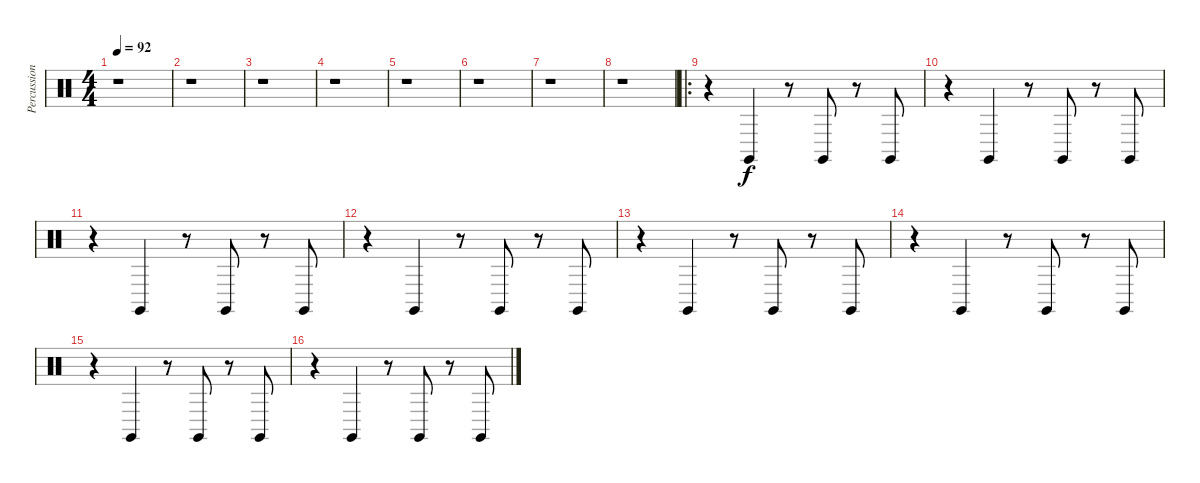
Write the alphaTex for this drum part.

\track ("Percussion" "Percussion") {instrument percussion}
\staff {score}
\articulation defaults
\ts (4 4)
\tempo 92
\clef neutral
\ks c
r.1{dy f} |
r.1 |
r.1 |
r.1 |
r.1 |
r.1 |
r.1 |
r.1 |
\ro
r.4 "Claves (hit)".4 r.8 "Claves (hit)".8 r.8 "Claves (hit)".8 |
r.4 "Claves (hit)".4 r.8 "Claves (hit)".8 r.8 "Claves (hit)".8 |
r.4 "Claves (hit)".4 r.8 "Claves (hit)".8 r.8 "Claves (hit)".8 |
r.4 "Claves (hit)".4 r.8 "Claves (hit)".8 r.8 "Claves (hit)".8 |
r.4 "Claves (hit)".4 r.8 "Claves (hit)".8 r.8 "Claves (hit)".8 |
r.4 "Claves (hit)".4 r.8 "Claves (hit)".8 r.8 "Claves (hit)".8 |
r.4 "Claves (hit)".4 r.8 "Claves (hit)".8 r.8 "Claves (hit)".8 |
r.4 "Claves (hit)".4 r.8 "Claves (hit)".8 r.8 "Claves (hit)".8
